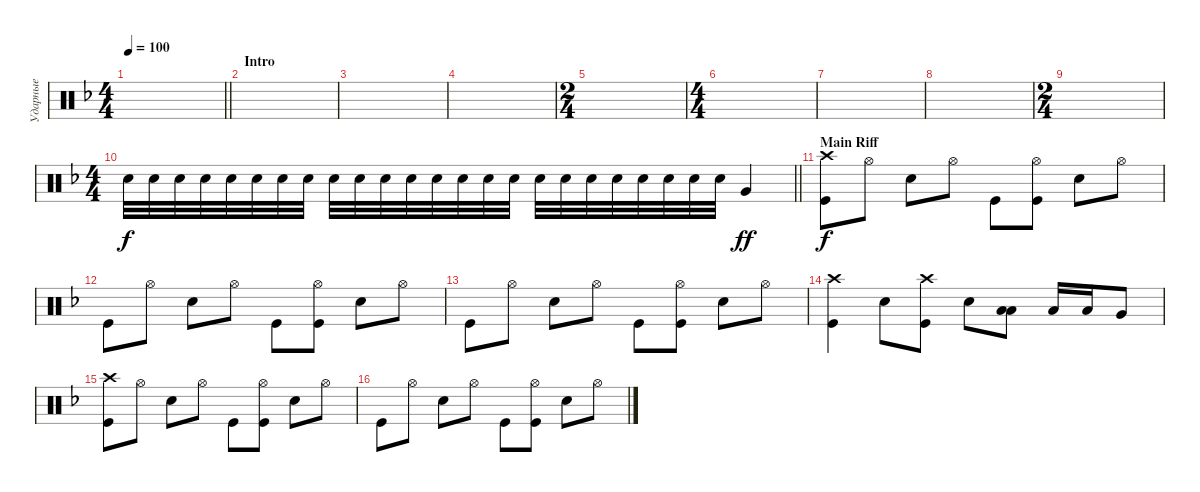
\track ("Ударные" "Ударные") {instrument percussion}
\staff {score}
\articulation defaults
\ts (4 4)
\tempo 100
\clef neutral
\barLineRight lightlight
\ks dminor
|
\section ("" "Intro")
|
|
|
\ts (2 4)
|
\ts (4 4)
|
|
|
\ts (2 4)
|
\ts (4 4)
\barLineRight lightlight "Snare (hit) 2".32{volume 14} "Snare (hit) 2".32 "Snare (hit) 2".32 "Snare (hit) 2".32 "Snare (hit) 2".32 "Snare (hit) 2".32 "Snare (hit) 2".32 "Snare (hit) 2".32 "Snare (hit) 2".32 "Snare (hit) 2".32 "Snare (hit) 2".32 "Snare (hit) 2".32 "Snare (hit) 2".32 "Snare (hit) 2".32 "Snare (hit) 2".32 "Snare (hit) 2".32 "Snare (hit) 2".32 "Snare (hit) 2".32 "Snare (hit) 2".32 "Snare (hit) 2".32 "Snare (hit) 2".32 "Snare (hit) 2".32 "Snare (hit) 2".32 "Snare (hit) 2".32 "Very Low Tom (hit)".4{bd 120 dy ff}
|
\section ("" "Main Riff")
("Kick (hit)" "Crash high (hit)").8{dy f} "Hi-Hat (open)".8 "Snare (hit) 2".8 "Hi-Hat (open)".8 "Kick (hit)".8 ("Hi-Hat (open)" "Kick (hit)").8 "Snare (hit) 2".8 "Hi-Hat (open)".8 |
"Kick (hit)".8 "Hi-Hat (open)".8 "Snare (hit) 2".8 "Hi-Hat (open)".8 "Kick (hit)".8 ("Hi-Hat (open)" "Kick (hit)").8 "Snare (hit) 2".8 "Hi-Hat (open)".8 |
"Kick (hit)".8 "Hi-Hat (open)".8 "Snare (hit) 2".8 "Hi-Hat (open)".8 "Kick (hit)".8 ("Hi-Hat (open)" "Kick (hit)").8 "Snare (hit) 2".8 "Hi-Hat (open)".8 |
("Kick (hit)" "Crash high (hit)").4 "Snare (hit) 2".8 ("Kick (hit)" "Crash high (hit)").8 "Snare (hit) 2".8 ("Low Tom (hit)" "Low Tom (hit)").8{bd 120} "Low Tom (hit)".16 "Low Tom (hit)".16 "Very Low Tom (hit)".8 |
("Kick (hit)" "Crash high (hit)").8 "Hi-Hat (open)".8 "Snare (hit) 2".8 "Hi-Hat (open)".8 "Kick (hit)".8 ("Hi-Hat (open)" "Kick (hit)").8 "Snare (hit) 2".8 "Hi-Hat (open)".8 |
"Kick (hit)".8 "Hi-Hat (open)".8 "Snare (hit) 2".8 "Hi-Hat (open)".8 "Kick (hit)".8 ("Hi-Hat (open)" "Kick (hit)").8 "Snare (hit) 2".8 "Hi-Hat (open)".8
